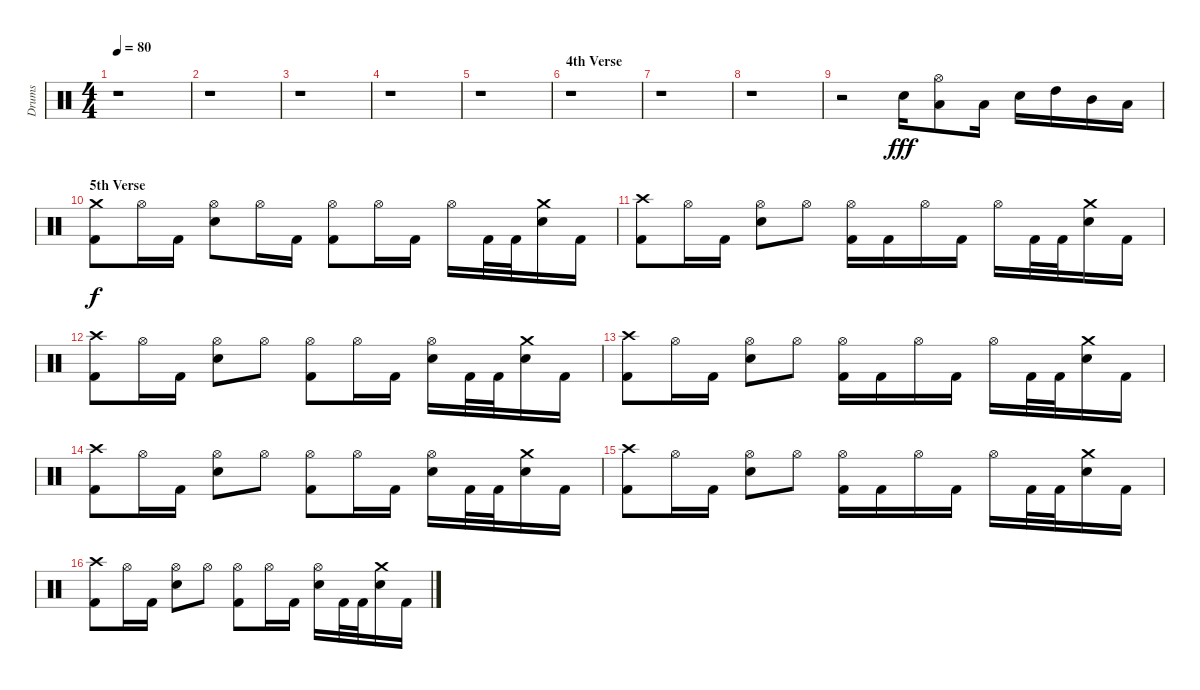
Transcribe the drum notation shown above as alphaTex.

\track ("Drums" "Drums") {instrument percussion}
\staff {score}
\articulation defaults
\ts (4 4)
\tempo 80
\clef neutral
\ks c
r.1{dy f} |
r.1 |
r.1 |
r.1 |
r.1 |
\section ("" "4th Verse")
r.1 |
r.1 |
r.1 |
r.2 "Electric Snare (hit)".16{dy fff} ("Low Tom (hit)" "Hi-Hat (open)").8 "Low Tom (hit)".16 "Electric Snare (hit)".16 "High Tom (hit)".16 "Mid Tom (hit)".16 "Low Tom (hit)".16 |
\section ("" "5th Verse")
("Kick (hit) 2" "Crash medium (hit)").8{dy f} "Hi-Hat (open)".16 "Kick (hit) 2".16 ("Electric Snare (hit)" "Hi-Hat (open)").8 "Hi-Hat (open)".16 "Kick (hit) 2".16 ("Kick (hit) 2" "Hi-Hat (open)").8 "Hi-Hat (open)".16 "Kick (hit) 2".16 "Hi-Hat (open)".16 "Kick (hit) 2".32 "Kick (hit) 2".32 ("Electric Snare (hit)" "Crash medium (hit)").16 "Kick (hit) 2".16 |
("Kick (hit) 2" "Crash high (hit)").8 "Hi-Hat (open)".16 "Kick (hit) 2".16 ("Electric Snare (hit)" "Hi-Hat (open)").8 "Hi-Hat (open)".8 ("Kick (hit) 2" "Hi-Hat (open)").16 "Kick (hit) 2".16 "Hi-Hat (open)".16 "Kick (hit) 2".16 "Hi-Hat (open)".16 "Kick (hit) 2".32 "Kick (hit) 2".32 ("Electric Snare (hit)" "Crash medium (hit)").16 "Kick (hit) 2".16 |
("Kick (hit) 2" "Crash high (hit)").8 "Hi-Hat (open)".16 "Kick (hit) 2".16 ("Electric Snare (hit)" "Hi-Hat (open)").8 "Hi-Hat (open)".8 ("Kick (hit) 2" "Hi-Hat (open)").8 "Hi-Hat (open)".16 "Kick (hit) 2".16 ("Electric Snare (hit)" "Hi-Hat (open)").16 "Kick (hit) 2".32 "Kick (hit) 2".32 ("Electric Snare (hit)" "Crash medium (hit)").16 "Kick (hit) 2".16 |
("Kick (hit) 2" "Crash high (hit)").8 "Hi-Hat (open)".16 "Kick (hit) 2".16 ("Electric Snare (hit)" "Hi-Hat (open)").8 "Hi-Hat (open)".8 ("Kick (hit) 2" "Hi-Hat (open)").16 "Kick (hit) 2".16 "Hi-Hat (open)".16 "Kick (hit) 2".16 "Hi-Hat (open)".16 "Kick (hit) 2".32 "Kick (hit) 2".32 ("Electric Snare (hit)" "Crash medium (hit)").16 "Kick (hit) 2".16 |
("Kick (hit) 2" "Crash high (hit)").8 "Hi-Hat (open)".16 "Kick (hit) 2".16 ("Electric Snare (hit)" "Hi-Hat (open)").8 "Hi-Hat (open)".8 ("Kick (hit) 2" "Hi-Hat (open)").8 "Hi-Hat (open)".16 "Kick (hit) 2".16 ("Electric Snare (hit)" "Hi-Hat (open)").16 "Kick (hit) 2".32 "Kick (hit) 2".32 ("Electric Snare (hit)" "Crash medium (hit)").16 "Kick (hit) 2".16 |
("Kick (hit) 2" "Crash high (hit)").8 "Hi-Hat (open)".16 "Kick (hit) 2".16 ("Electric Snare (hit)" "Hi-Hat (open)").8 "Hi-Hat (open)".8 ("Kick (hit) 2" "Hi-Hat (open)").16 "Kick (hit) 2".16 "Hi-Hat (open)".16 "Kick (hit) 2".16 "Hi-Hat (open)".16 "Kick (hit) 2".32 "Kick (hit) 2".32 ("Electric Snare (hit)" "Crash medium (hit)").16 "Kick (hit) 2".16 |
("Kick (hit) 2" "Crash high (hit)").8 "Hi-Hat (open)".16 "Kick (hit) 2".16 ("Electric Snare (hit)" "Hi-Hat (open)").8 "Hi-Hat (open)".8 ("Kick (hit) 2" "Hi-Hat (open)").8 "Hi-Hat (open)".16 "Kick (hit) 2".16 ("Electric Snare (hit)" "Hi-Hat (open)").16 "Kick (hit) 2".32 "Kick (hit) 2".32 ("Electric Snare (hit)" "Crash medium (hit)").16 "Kick (hit) 2".16
